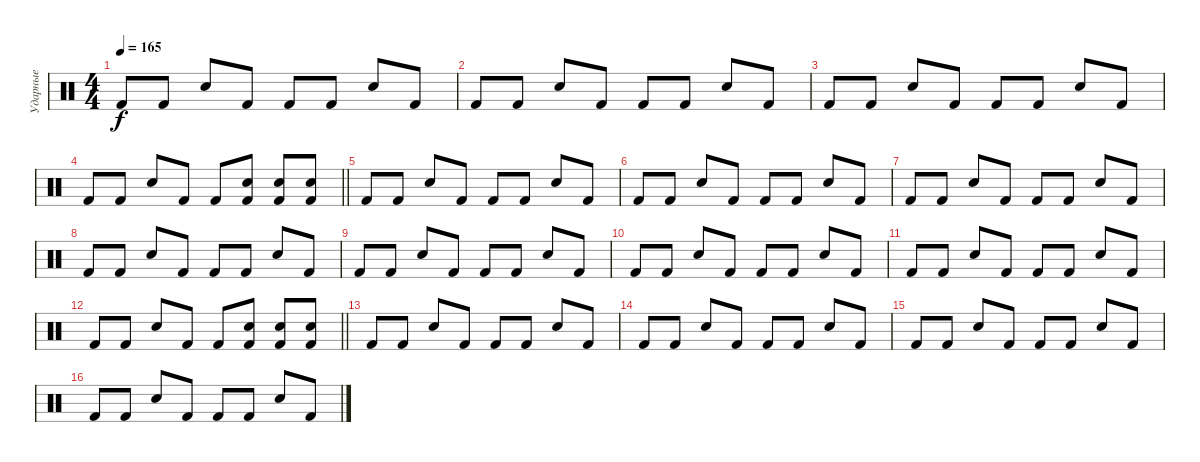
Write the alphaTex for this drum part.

\track ("Ударные" "Ударные") {instrument percussion}
\staff {score}
\articulation defaults
\ts (4 4)
\tempo 165
\clef neutral
\ks c "Kick (hit) 2".8{dy f} "Kick (hit) 2".8 "Snare (hit) 2".8 "Kick (hit) 2".8 "Kick (hit) 2".8 "Kick (hit) 2".8 "Snare (hit) 2".8 "Kick (hit) 2".8
|
"Kick (hit) 2".8 "Kick (hit) 2".8 "Snare (hit) 2".8 "Kick (hit) 2".8 "Kick (hit) 2".8 "Kick (hit) 2".8 "Snare (hit) 2".8 "Kick (hit) 2".8 |
"Kick (hit) 2".8 "Kick (hit) 2".8 "Snare (hit) 2".8 "Kick (hit) 2".8 "Kick (hit) 2".8 "Kick (hit) 2".8 "Snare (hit) 2".8 "Kick (hit) 2".8 |
\barLineRight lightlight "Kick (hit) 2".8 "Kick (hit) 2".8 "Snare (hit) 2".8 "Kick (hit) 2".8 "Kick (hit) 2".8
("Kick (hit) 2" "Snare (hit) 2").8 ("Kick (hit) 2" "Snare (hit) 2").8 ("Kick (hit) 2" "Snare (hit) 2").8 |
"Kick (hit) 2".8 "Kick (hit) 2".8 "Snare (hit) 2".8 "Kick (hit) 2".8 "Kick (hit) 2".8 "Kick (hit) 2".8 "Snare (hit) 2".8 "Kick (hit) 2".8 |
"Kick (hit) 2".8 "Kick (hit) 2".8 "Snare (hit) 2".8 "Kick (hit) 2".8 "Kick (hit) 2".8 "Kick (hit) 2".8 "Snare (hit) 2".8 "Kick (hit) 2".8 |
"Kick (hit) 2".8 "Kick (hit) 2".8 "Snare (hit) 2".8 "Kick (hit) 2".8 "Kick (hit) 2".8 "Kick (hit) 2".8 "Snare (hit) 2".8 "Kick (hit) 2".8 |
"Kick (hit) 2".8 "Kick (hit) 2".8 "Snare (hit) 2".8 "Kick (hit) 2".8 "Kick (hit) 2".8 "Kick (hit) 2".8 "Snare (hit) 2".8 "Kick (hit) 2".8 |
"Kick (hit) 2".8 "Kick (hit) 2".8 "Snare (hit) 2".8 "Kick (hit) 2".8 "Kick (hit) 2".8 "Kick (hit) 2".8 "Snare (hit) 2".8 "Kick (hit) 2".8 |
"Kick (hit) 2".8 "Kick (hit) 2".8 "Snare (hit) 2".8 "Kick (hit) 2".8 "Kick (hit) 2".8 "Kick (hit) 2".8 "Snare (hit) 2".8 "Kick (hit) 2".8 |
"Kick (hit) 2".8 "Kick (hit) 2".8 "Snare (hit) 2".8 "Kick (hit) 2".8 "Kick (hit) 2".8 "Kick (hit) 2".8 "Snare (hit) 2".8 "Kick (hit) 2".8 |
\barLineRight lightlight "Kick (hit) 2".8 "Kick (hit) 2".8 "Snare (hit) 2".8 "Kick (hit) 2".8 "Kick (hit) 2".8
("Kick (hit) 2" "Snare (hit) 2").8 ("Kick (hit) 2" "Snare (hit) 2").8 ("Kick (hit) 2" "Snare (hit) 2").8 |
"Kick (hit) 2".8 "Kick (hit) 2".8 "Snare (hit) 2".8 "Kick (hit) 2".8 "Kick (hit) 2".8 "Kick (hit) 2".8 "Snare (hit) 2".8 "Kick (hit) 2".8 |
"Kick (hit) 2".8 "Kick (hit) 2".8 "Snare (hit) 2".8 "Kick (hit) 2".8 "Kick (hit) 2".8 "Kick (hit) 2".8 "Snare (hit) 2".8 "Kick (hit) 2".8 |
"Kick (hit) 2".8 "Kick (hit) 2".8 "Snare (hit) 2".8 "Kick (hit) 2".8 "Kick (hit) 2".8 "Kick (hit) 2".8 "Snare (hit) 2".8 "Kick (hit) 2".8 |
"Kick (hit) 2".8 "Kick (hit) 2".8 "Snare (hit) 2".8 "Kick (hit) 2".8 "Kick (hit) 2".8 "Kick (hit) 2".8 "Snare (hit) 2".8 "Kick (hit) 2".8
